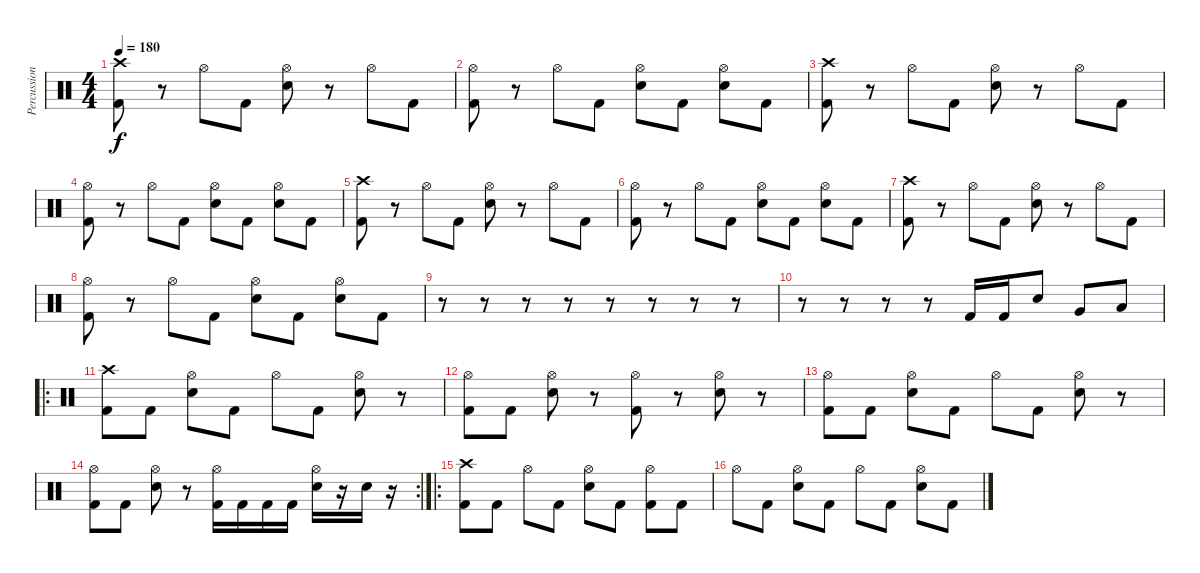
\track ("Percussion" "Percussion") {instrument percussion}
\staff {score}
\articulation defaults
\ts (4 4)
\tempo 180
\clef neutral
\ks c
("Crash high (hit)" "Kick (hit) 2").8{dy f} r.8 "Hi-Hat (open)".8 "Kick (hit) 2".8 ("Hi-Hat (open)" "Electric Snare (hit)").8 r.8 "Hi-Hat (open)".8 "Kick (hit) 2".8 |
("Hi-Hat (open)" "Kick (hit) 2").8 r.8 "Hi-Hat (open)".8 "Kick (hit) 2".8 ("Hi-Hat (open)" "Electric Snare (hit)").8 "Kick (hit) 2".8 ("Hi-Hat (open)" "Electric Snare (hit)").8 "Kick (hit) 2".8 |
("Crash high (hit)" "Kick (hit) 2").8 r.8 "Hi-Hat (open)".8 "Kick (hit) 2".8 ("Hi-Hat (open)" "Electric Snare (hit)").8 r.8 "Hi-Hat (open)".8 "Kick (hit) 2".8 |
("Hi-Hat (open)" "Kick (hit) 2").8 r.8 "Hi-Hat (open)".8 "Kick (hit) 2".8 ("Hi-Hat (open)" "Electric Snare (hit)").8 "Kick (hit) 2".8 ("Hi-Hat (open)" "Electric Snare (hit)").8 "Kick (hit) 2".8 |
("Crash high (hit)" "Kick (hit) 2").8 r.8 "Hi-Hat (open)".8 "Kick (hit) 2".8 ("Hi-Hat (open)" "Electric Snare (hit)").8 r.8 "Hi-Hat (open)".8 "Kick (hit) 2".8 |
("Hi-Hat (open)" "Kick (hit) 2").8 r.8 "Hi-Hat (open)".8 "Kick (hit) 2".8 ("Hi-Hat (open)" "Electric Snare (hit)").8 "Kick (hit) 2".8 ("Hi-Hat (open)" "Electric Snare (hit)").8 "Kick (hit) 2".8 |
("Crash high (hit)" "Kick (hit) 2").8 r.8 "Hi-Hat (open)".8 "Kick (hit) 2".8 ("Hi-Hat (open)" "Electric Snare (hit)").8 r.8 "Hi-Hat (open)".8 "Kick (hit) 2".8 |
("Hi-Hat (open)" "Kick (hit) 2").8 r.8 "Hi-Hat (open)".8 "Kick (hit) 2".8 ("Hi-Hat (open)" "Electric Snare (hit)").8 "Kick (hit) 2".8 ("Hi-Hat (open)" "Electric Snare (hit)").8 "Kick (hit) 2".8 |
r.8 r.8 r.8 r.8 r.8 r.8 r.8 r.8 |
r.8 r.8 r.8 r.8 "Kick (hit) 2".16 "Kick (hit) 2".16 "Electric Snare (hit)".8 "Very Low Tom (hit)".8 "Low Floor Tom (hit)".8 |
\ro
("Crash high (hit)" "Kick (hit) 2").8 "Kick (hit) 2".8 ("Hi-Hat (open)" "Electric Snare (hit)").8 "Kick (hit) 2".8 "Hi-Hat (open)".8 "Kick (hit) 2".8 ("Hi-Hat (open)" "Electric Snare (hit)").8 r.8 |
("Hi-Hat (open)" "Kick (hit) 2").8 "Kick (hit) 2".8 ("Hi-Hat (open)" "Electric Snare (hit)").8 r.8 ("Hi-Hat (open)" "Kick (hit) 2").8 r.8 ("Hi-Hat (open)" "Electric Snare (hit)").8 r.8 |
("Hi-Hat (open)" "Kick (hit) 2").8 "Kick (hit) 2".8 ("Hi-Hat (open)" "Electric Snare (hit)").8 "Kick (hit) 2".8 "Hi-Hat (open)".8 "Kick (hit) 2".8 ("Hi-Hat (open)" "Electric Snare (hit)").8 r.8 |
\rc 2
("Hi-Hat (open)" "Kick (hit) 2").8 "Kick (hit) 2".8 ("Hi-Hat (open)" "Electric Snare (hit)").8 r.8 ("Hi-Hat (open)" "Kick (hit) 2").16 "Kick (hit) 2".16 "Kick (hit) 2".16 "Kick (hit) 2".16 ("Hi-Hat (open)" "Electric Snare (hit)").16 r.16 "Electric Snare (hit)".16 r.16 |
\ro
("Crash high (hit)" "Kick (hit) 2").8 "Kick (hit) 2".8 "Hi-Hat (open)".8 "Kick (hit) 2".8 ("Hi-Hat (open)" "Electric Snare (hit)").8 "Kick (hit) 2".8 ("Hi-Hat (open)" "Kick (hit) 2").8 "Kick (hit) 2".8 |
"Hi-Hat (open)".8 "Kick (hit) 2".8 ("Hi-Hat (open)" "Electric Snare (hit)").8 "Kick (hit) 2".8 "Hi-Hat (open)".8 "Kick (hit) 2".8 ("Hi-Hat (open)" "Electric Snare (hit)").8 "Kick (hit) 2".8
